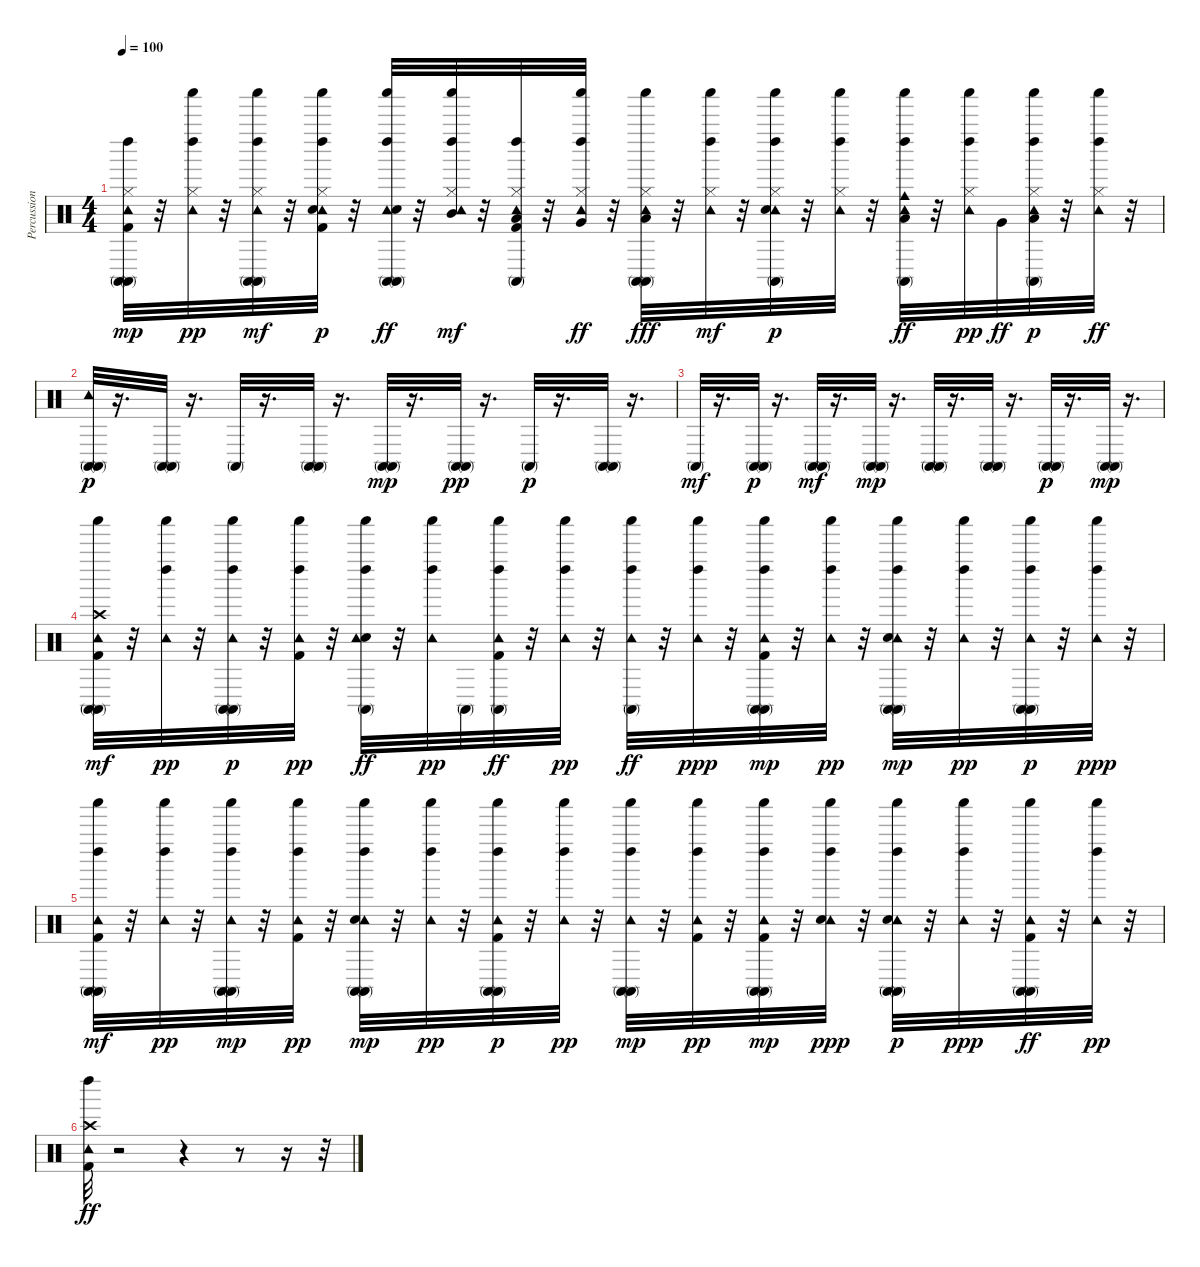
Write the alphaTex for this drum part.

\track ("Percussions" "Percussion") {instrument percussion}
\staff {score}
\articulation defaults
\ts (4 4)
\tempo 100
\clef neutral
\ks c
("Tambourine (hit)" "Conga high (mute)" "Left Maraca (hit)" "Kick (hit) 2" "Hi-Hat (closed)" "Conga high (mute)").32{dy mp} r.32 ("Tambourine (hit)" "Left Maraca (hit)" "Hi-Hat (closed)" "Shaker (hit)").32{dy pp} r.32 ("Conga high (mute)" "Tambourine (hit)" "Left Maraca (hit)" "Hi-Hat (closed)" "Conga high (mute)" "Shaker (hit)").32{dy mf} r.32 ("Tambourine (hit)" "Kick (hit) 2" "Hi-Hat (closed)" "Left Maraca (hit)" "Shaker (hit)" "Electric Snare (hit)").32{dy p} r.32 ("Conga high (mute)" "Tambourine (hit)" "Left Maraca (hit)" "Conga high (mute)" "Shaker (hit)" "Electric Snare (hit)").32{dy ff} r.32 ("Tambourine (hit)" "Hi-Hat (closed)" "Mid Tom (hit)" "Shaker (hit)" "Left Maraca (hit)").32{dy mf} r.32 ("Conga high (mute)" "Tambourine (hit)" "Left Maraca (hit)" "Kick (hit) 2" "Low Tom (hit)" "Hi-Hat (closed)").32 r.32 ("Tambourine (hit)" "Hi-Hat (closed)" "Very Low Tom (hit)" "Shaker (hit)" "Left Maraca (hit)").32{dy ff} r.32 ("Conga high (mute)" "Conga high (mute)" "Tambourine (hit)" "Low Floor Tom (hit)" "Hi-Hat (closed)" "Shaker (hit)").32{dy fff} r.32 ("Tambourine (hit)" "Hi-Hat (closed)" "Shaker (hit)" "Left Maraca (hit)").32{dy mf} r.32 ("Tambourine (hit)" "Electric Snare (hit)" "Hi-Hat (closed)" "Left Maraca (hit)" "Shaker (hit)" "Conga high (mute)").32{dy p} r.32 ("Tambourine (hit)" "Hi-Hat (closed)" "Left Maraca (hit)" "Shaker (hit)").32 r.32 ("Tambourine (hit)" "Low Tom (hit)" "Left Maraca (hit)" "Shaker (hit)" "Conga high (mute)" "Cowbell medium (hit)").32{dy ff} r.32 ("Tambourine (hit)" "Hi-Hat (closed)" "Left Maraca (hit)" "Shaker (hit)").32{dy pp} "Very Low Tom (hit)".32{dy ff} ("Tambourine (hit)" "Hi-Hat (closed)" "Conga high (mute)" "Shaker (hit)" "Low Floor Tom (hit)" "Left Maraca (hit)").32{dy p} r.32 ("Tambourine (hit)" "Hi-Hat (closed)" "Shaker (hit)" "Left Maraca (hit)").32{dy ff} r.32 |
("Tambourine (hit)" "Conga high (mute)" "Conga high (mute)").32{dy p} r.16{d} ("Conga high (mute)" "Conga high (mute)").32 r.16{d} "Conga high (mute)".32 r.16{d} ("Conga high (mute)" "Conga high (mute)").32 r.16{d} ("Conga high (mute)" "Conga high (mute)").32{dy mp} r.16{d} ("Conga high (mute)" "Conga high (mute)").32{dy pp} r.16{d} "Conga high (mute)".32{dy p} r.16{d} ("Conga high (mute)" "Conga high (mute)").32 r.16{d} |
"Conga high (mute)".32{dy mf} r.16{d} ("Conga high (mute)" "Conga high (mute)").32{dy p} r.16{d} ("Conga high (mute)" "Conga high (mute)").32{dy mf} r.16{d} ("Conga high (mute)" "Conga high (mute)").32{dy mp} r.16{d} ("Conga high (mute)" "Conga high (mute)").32 r.16{d} ("Conga high (mute)" "Conga high (mute)").32 r.16{d} ("Conga high (mute)" "Conga high (mute)").32{dy p} r.16{d} ("Conga high (mute)" "Conga high (mute)").32{dy mp} r.16{d} |
("Conga high (mute)" "Conga high (mute)" "Crash high (hit)" "Kick (hit) 2" "Tambourine (hit)" "Shaker (hit)").32{dy mf} r.32 ("Shaker (hit)" "Left Maraca (hit)" "Tambourine (hit)").32{dy pp} r.32 ("Conga high (mute)" "Conga high (mute)" "Shaker (hit)" "Tambourine (hit)" "Left Maraca (hit)").32{dy p} r.32 ("Kick (hit) 2" "Shaker (hit)" "Tambourine (hit)" "Left Maraca (hit)").32{dy pp} r.32 ("Conga high (mute)" "Electric Snare (hit)" "Tambourine (hit)" "Shaker (hit)" "Left Maraca (hit)").32{dy ff} r.32 ("Left Maraca (hit)" "Shaker (hit)" "Tambourine (hit)").32{dy pp} "Conga high (mute)".32 ("Conga high (mute)" "Tambourine (hit)" "Kick (hit) 2" "Left Maraca (hit)" "Shaker (hit)").32{dy ff} r.32 ("Tambourine (hit)" "Left Maraca (hit)" "Shaker (hit)").32{dy pp} r.32 ("Conga high (mute)" "Tambourine (hit)" "Left Maraca (hit)" "Shaker (hit)").32{dy ff} r.32 ("Tambourine (hit)" "Left Maraca (hit)" "Shaker (hit)").32{dy ppp} r.32 ("Conga high (mute)" "Conga high (mute)" "Tambourine (hit)" "Kick (hit) 2" "Left Maraca (hit)" "Shaker (hit)").32{dy mp} r.32 ("Tambourine (hit)" "Left Maraca (hit)" "Shaker (hit)").32{dy pp} r.32 ("Conga high (mute)" "Tambourine (hit)" "Electric Snare (hit)" "Conga high (mute)" "Left Maraca (hit)" "Shaker (hit)").32{dy mp} r.32 ("Tambourine (hit)" "Left Maraca (hit)" "Shaker (hit)").32{dy pp} r.32 ("Conga high (mute)" "Tambourine (hit)" "Conga high (mute)" "Left Maraca (hit)" "Shaker (hit)").32{dy p} r.32 ("Tambourine (hit)" "Left Maraca (hit)" "Shaker (hit)").32{dy ppp} r.32 |
("Conga high (mute)" "Tambourine (hit)" "Conga high (mute)" "Kick (hit) 2" "Left Maraca (hit)" "Shaker (hit)").32{dy mf} r.32 ("Tambourine (hit)" "Left Maraca (hit)" "Shaker (hit)").32{dy pp} r.32 ("Conga high (mute)" "Tambourine (hit)" "Left Maraca (hit)" "Shaker (hit)" "Conga high (mute)").32{dy mp} r.32 ("Tambourine (hit)" "Kick (hit) 2" "Left Maraca (hit)" "Shaker (hit)").32{dy pp} r.32 ("Conga high (mute)" "Tambourine (hit)" "Electric Snare (hit)" "Shaker (hit)" "Conga high (mute)" "Left Maraca (hit)").32{dy mp} r.32 ("Tambourine (hit)" "Left Maraca (hit)" "Shaker (hit)").32{dy pp} r.32 ("Tambourine (hit)" "Conga high (mute)" "Shaker (hit)" "Left Maraca (hit)" "Kick (hit) 2" "Conga high (mute)").32{dy p} r.32 ("Tambourine (hit)" "Left Maraca (hit)" "Shaker (hit)").32{dy pp} r.32 ("Conga high (mute)" "Tambourine (hit)" "Left Maraca (hit)" "Conga high (mute)" "Shaker (hit)").32{dy mp} r.32 ("Tambourine (hit)" "Kick (hit) 2" "Left Maraca (hit)" "Shaker (hit)").32{dy pp} r.32 ("Conga high (mute)" "Kick (hit) 2" "Tambourine (hit)" "Left Maraca (hit)" "Shaker (hit)" "Conga high (mute)").32{dy mp} r.32 ("Tambourine (hit)" "Electric Snare (hit)" "Left Maraca (hit)" "Shaker (hit)").32{dy ppp} r.32 ("Conga high (mute)" "Tambourine (hit)" "Left Maraca (hit)" "Electric Snare (hit)" "Conga high (mute)" "Shaker (hit)").32{dy p} r.32 ("Tambourine (hit)" "Left Maraca (hit)" "Shaker (hit)").32{dy ppp} r.32 ("Conga high (mute)" "Kick (hit) 2" "Tambourine (hit)" "Conga high (mute)" "Shaker (hit)").32{dy ff} r.32 ("Tambourine (hit)" "Left Maraca (hit)" "Shaker (hit)").32{dy pp} r.32 |
("Crash high (hit)" "Tambourine (hit)" "Left Maraca (hit)" "Kick (hit) 2").32{dy ff} r.2 r.4 r.8 r.16 r.32
